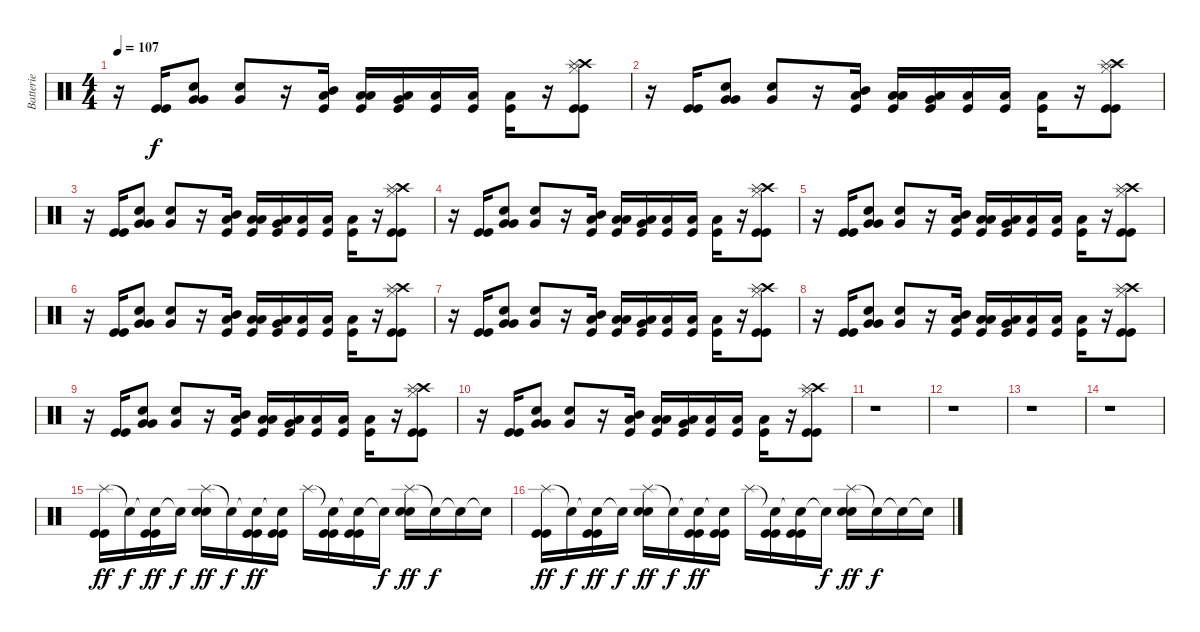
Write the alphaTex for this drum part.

\track ("Batterie" "Batterie") {instrument percussion}
\staff {score}
\articulation defaults
\ts (4 4)
\tempo 107
\clef neutral
\ks c
r.16{dy f} ("Kick (hit)" "Kick (hit)").16 ("Snare (hit) 2" "Very Low Tom (hit)" "Very Low Tom (hit)").8 ("Snare (hit) 2" "Very Low Tom (hit)").8 r.16 ("Mid Tom (hit)" "Low Floor Tom (hit)" "Kick (hit)").16 ("Low Tom (hit)" "Low Floor Tom (hit)" "Kick (hit)").16 ("Very Low Tom (hit)" "Low Floor Tom (hit)" "Kick (hit)").16 ("Low Floor Tom (hit)" "Kick (hit)").16 ("Low Floor Tom (hit)" "Kick (hit)").16 ("Low Floor Tom (hit)" "Kick (hit)").16 r.16 ("Crash high (hit)" "Splash (hit)" "Hi-Hat (closed)" "Kick (hit)" "Kick (hit)").8 |
r.16 ("Kick (hit)" "Kick (hit)").16 ("Snare (hit) 2" "Very Low Tom (hit)" "Very Low Tom (hit)").8 ("Snare (hit) 2" "Very Low Tom (hit)").8 r.16 ("Mid Tom (hit)" "Low Floor Tom (hit)" "Kick (hit)").16 ("Low Tom (hit)" "Low Floor Tom (hit)" "Kick (hit)").16 ("Very Low Tom (hit)" "Low Floor Tom (hit)" "Kick (hit)").16 ("Low Floor Tom (hit)" "Kick (hit)").16 ("Low Floor Tom (hit)" "Kick (hit)").16 ("Low Floor Tom (hit)" "Kick (hit)").16 r.16 ("Crash high (hit)" "Splash (hit)" "Hi-Hat (closed)" "Kick (hit)" "Kick (hit)").8 |
r.16 ("Kick (hit)" "Kick (hit)").16 ("Snare (hit) 2" "Very Low Tom (hit)" "Very Low Tom (hit)").8 ("Snare (hit) 2" "Very Low Tom (hit)").8 r.16 ("Mid Tom (hit)" "Low Floor Tom (hit)" "Kick (hit)").16 ("Low Tom (hit)" "Low Floor Tom (hit)" "Kick (hit)").16 ("Very Low Tom (hit)" "Low Floor Tom (hit)" "Kick (hit)").16 ("Low Floor Tom (hit)" "Kick (hit)").16 ("Low Floor Tom (hit)" "Kick (hit)").16 ("Low Floor Tom (hit)" "Kick (hit)").16 r.16 ("Crash high (hit)" "Splash (hit)" "Hi-Hat (closed)" "Kick (hit)" "Kick (hit)").8 |
r.16 ("Kick (hit)" "Kick (hit)").16 ("Snare (hit) 2" "Very Low Tom (hit)" "Very Low Tom (hit)").8 ("Snare (hit) 2" "Very Low Tom (hit)").8 r.16 ("Mid Tom (hit)" "Low Floor Tom (hit)" "Kick (hit)").16 ("Low Tom (hit)" "Low Floor Tom (hit)" "Kick (hit)").16 ("Very Low Tom (hit)" "Low Floor Tom (hit)" "Kick (hit)").16 ("Low Floor Tom (hit)" "Kick (hit)").16 ("Low Floor Tom (hit)" "Kick (hit)").16 ("Low Floor Tom (hit)" "Kick (hit)").16 r.16 ("Crash high (hit)" "Splash (hit)" "Hi-Hat (closed)" "Kick (hit)" "Kick (hit)").8 |
r.16 ("Kick (hit)" "Kick (hit)").16 ("Snare (hit) 2" "Very Low Tom (hit)" "Very Low Tom (hit)").8 ("Snare (hit) 2" "Very Low Tom (hit)").8 r.16 ("Mid Tom (hit)" "Low Floor Tom (hit)" "Kick (hit)").16 ("Low Tom (hit)" "Low Floor Tom (hit)" "Kick (hit)").16 ("Very Low Tom (hit)" "Low Floor Tom (hit)" "Kick (hit)").16 ("Low Floor Tom (hit)" "Kick (hit)").16 ("Low Floor Tom (hit)" "Kick (hit)").16 ("Low Floor Tom (hit)" "Kick (hit)").16 r.16 ("Crash high (hit)" "Splash (hit)" "Hi-Hat (closed)" "Kick (hit)" "Kick (hit)").8 |
r.16 ("Kick (hit)" "Kick (hit)").16 ("Snare (hit) 2" "Very Low Tom (hit)" "Very Low Tom (hit)").8 ("Snare (hit) 2" "Very Low Tom (hit)").8 r.16 ("Mid Tom (hit)" "Low Floor Tom (hit)" "Kick (hit)").16 ("Low Tom (hit)" "Low Floor Tom (hit)" "Kick (hit)").16 ("Very Low Tom (hit)" "Low Floor Tom (hit)" "Kick (hit)").16 ("Low Floor Tom (hit)" "Kick (hit)").16 ("Low Floor Tom (hit)" "Kick (hit)").16 ("Low Floor Tom (hit)" "Kick (hit)").16 r.16 ("Crash high (hit)" "Splash (hit)" "Hi-Hat (closed)" "Kick (hit)" "Kick (hit)").8 |
r.16 ("Kick (hit)" "Kick (hit)").16 ("Snare (hit) 2" "Very Low Tom (hit)" "Very Low Tom (hit)").8 ("Snare (hit) 2" "Very Low Tom (hit)").8 r.16 ("Mid Tom (hit)" "Low Floor Tom (hit)" "Kick (hit)").16 ("Low Tom (hit)" "Low Floor Tom (hit)" "Kick (hit)").16 ("Very Low Tom (hit)" "Low Floor Tom (hit)" "Kick (hit)").16 ("Low Floor Tom (hit)" "Kick (hit)").16 ("Low Floor Tom (hit)" "Kick (hit)").16 ("Low Floor Tom (hit)" "Kick (hit)").16 r.16 ("Crash high (hit)" "Splash (hit)" "Hi-Hat (closed)" "Kick (hit)" "Kick (hit)").8 |
r.16 ("Kick (hit)" "Kick (hit)").16 ("Snare (hit) 2" "Very Low Tom (hit)" "Very Low Tom (hit)").8 ("Snare (hit) 2" "Very Low Tom (hit)").8 r.16 ("Mid Tom (hit)" "Low Floor Tom (hit)" "Kick (hit)").16 ("Low Tom (hit)" "Low Floor Tom (hit)" "Kick (hit)").16 ("Very Low Tom (hit)" "Low Floor Tom (hit)" "Kick (hit)").16 ("Low Floor Tom (hit)" "Kick (hit)").16 ("Low Floor Tom (hit)" "Kick (hit)").16 ("Low Floor Tom (hit)" "Kick (hit)").16 r.16 ("Crash high (hit)" "Splash (hit)" "Hi-Hat (closed)" "Kick (hit)" "Kick (hit)").8 |
r.16 ("Kick (hit)" "Kick (hit)").16 ("Snare (hit) 2" "Very Low Tom (hit)" "Very Low Tom (hit)").8 ("Snare (hit) 2" "Very Low Tom (hit)").8 r.16 ("Mid Tom (hit)" "Low Floor Tom (hit)" "Kick (hit)").16 ("Low Tom (hit)" "Low Floor Tom (hit)" "Kick (hit)").16 ("Very Low Tom (hit)" "Low Floor Tom (hit)" "Kick (hit)").16 ("Low Floor Tom (hit)" "Kick (hit)").16 ("Low Floor Tom (hit)" "Kick (hit)").16 ("Low Floor Tom (hit)" "Kick (hit)").16 r.16 ("Crash high (hit)" "Splash (hit)" "Hi-Hat (closed)" "Kick (hit)" "Kick (hit)").8 |
r.16 ("Kick (hit)" "Kick (hit)").16 ("Snare (hit) 2" "Very Low Tom (hit)" "Very Low Tom (hit)").8 ("Snare (hit) 2" "Very Low Tom (hit)").8 r.16 ("Mid Tom (hit)" "Low Floor Tom (hit)" "Kick (hit)").16 ("Low Tom (hit)" "Low Floor Tom (hit)" "Kick (hit)").16 ("Very Low Tom (hit)" "Low Floor Tom (hit)" "Kick (hit)").16 ("Low Floor Tom (hit)" "Kick (hit)").16 ("Low Floor Tom (hit)" "Kick (hit)").16 ("Low Floor Tom (hit)" "Kick (hit)").16 r.16 ("Crash high (hit)" "Splash (hit)" "Hi-Hat (closed)" "Kick (hit)" "Kick (hit)").8 |
r.1 |
r.1 |
r.1 |
r.1 |
("Splash (hit)" "Kick (hit)" "Kick (hit)").16{dy ff} "Snare (hit)"{t}.16{dy f} ("Snare (hit)"{t} "Kick (hit)" "Kick (hit)").16{dy ff} "Snare (hit)"{t}.16{dy f} ("Splash (hit)" "Snare (hit) 2" "Snare (hit) 2").16{dy ff} "Snare (hit)"{t}.16{dy f} ("Snare (hit)"{t} "Kick (hit)" "Kick (hit)").16{dy ff} ("Snare (hit)"{t} "Kick (hit)" "Kick (hit)").16 "Splash (hit)".16 ("Snare (hit)"{t} "Kick (hit)" "Kick (hit)").16 ("Snare (hit)"{t} "Kick (hit)" "Kick (hit)").16 "Snare (hit)"{t}.16{dy f} ("Splash (hit)" "Snare (hit) 2" "Snare (hit) 2").16{dy ff} "Snare (hit)"{t}.16{dy f} "Snare (hit)"{t}.16 "Snare (hit)"{t}.16 |
("Splash (hit)" "Kick (hit)" "Kick (hit)").16{dy ff} "Snare (hit)"{t}.16{dy f} ("Snare (hit)"{t} "Kick (hit)" "Kick (hit)").16{dy ff} "Snare (hit)"{t}.16{dy f} ("Splash (hit)" "Snare (hit) 2" "Snare (hit) 2").16{dy ff} "Snare (hit)"{t}.16{dy f} ("Snare (hit)"{t} "Kick (hit)" "Kick (hit)").16{dy ff} ("Snare (hit)"{t} "Kick (hit)" "Kick (hit)").16 "Splash (hit)".16 ("Snare (hit)"{t} "Kick (hit)" "Kick (hit)").16 ("Snare (hit)"{t} "Kick (hit)" "Kick (hit)").16 "Snare (hit)"{t}.16{dy f} ("Splash (hit)" "Snare (hit) 2" "Snare (hit) 2").16{dy ff} "Snare (hit)"{t}.16{dy f} "Snare (hit)"{t}.16 "Snare (hit)"{t}.16
